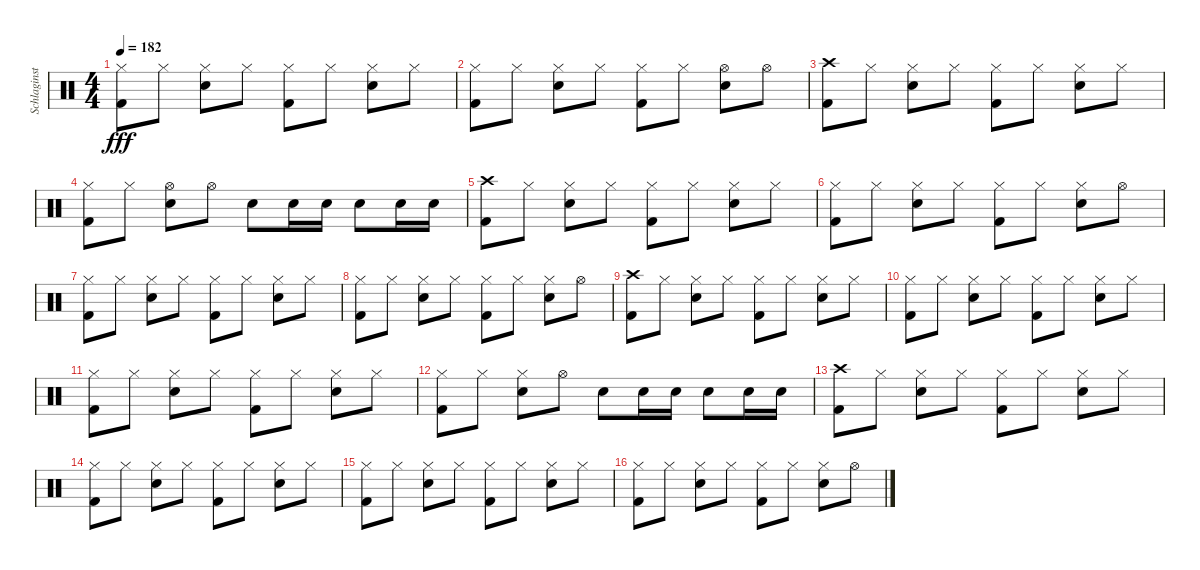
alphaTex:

\track ("Schlaginstrumente - Auswahl" "Schlaginst") {instrument percussion}
\staff {score}
\articulation defaults
\ts (4 4)
\tempo 182
\clef neutral
\ks c
("Kick (hit) 2" "Hi-Hat (closed)").8{dy fff} "Hi-Hat (closed)".8 ("Snare (hit) 2" "Hi-Hat (closed)").8 "Hi-Hat (closed)".8 ("Kick (hit) 2" "Hi-Hat (closed)").8 "Hi-Hat (closed)".8 ("Snare (hit) 2" "Hi-Hat (closed)").8 "Hi-Hat (closed)".8 |
("Kick (hit) 2" "Hi-Hat (closed)").8 "Hi-Hat (closed)".8 ("Snare (hit) 2" "Hi-Hat (closed)").8 "Hi-Hat (closed)".8 ("Kick (hit) 2" "Hi-Hat (closed)").8 "Hi-Hat (closed)".8 ("Snare (hit) 2" "Hi-Hat (open)").8 "Hi-Hat (open)".8 |
("Kick (hit) 2" "Crash high (hit)").8 "Hi-Hat (closed)".8 ("Snare (hit) 2" "Hi-Hat (closed)").8 "Hi-Hat (closed)".8 ("Kick (hit) 2" "Hi-Hat (closed)").8 "Hi-Hat (closed)".8 ("Snare (hit) 2" "Hi-Hat (closed)").8 "Hi-Hat (closed)".8 |
("Kick (hit) 2" "Hi-Hat (closed)").8 "Hi-Hat (closed)".8 ("Snare (hit) 2" "Hi-Hat (open)").8 "Hi-Hat (open)".8 "Snare (hit) 2".8 "Snare (hit) 2".16 "Snare (hit) 2".16 "Snare (hit) 2".8 "Snare (hit) 2".16 "Snare (hit) 2".16 |
("Kick (hit) 2" "Crash high (hit)").8 "Hi-Hat (closed)".8 ("Snare (hit) 2" "Hi-Hat (closed)").8 "Hi-Hat (closed)".8 ("Kick (hit) 2" "Hi-Hat (closed)").8 "Hi-Hat (closed)".8 ("Snare (hit) 2" "Hi-Hat (closed)").8 "Hi-Hat (closed)".8 |
("Kick (hit) 2" "Hi-Hat (closed)").8 "Hi-Hat (closed)".8 ("Snare (hit) 2" "Hi-Hat (closed)").8 "Hi-Hat (closed)".8 ("Kick (hit) 2" "Hi-Hat (closed)").8 "Hi-Hat (closed)".8 ("Snare (hit) 2" "Hi-Hat (closed)").8 "Hi-Hat (open)".8 |
("Kick (hit) 2" "Hi-Hat (closed)").8 "Hi-Hat (closed)".8 ("Snare (hit) 2" "Hi-Hat (closed)").8 "Hi-Hat (closed)".8 ("Kick (hit) 2" "Hi-Hat (closed)").8 "Hi-Hat (closed)".8 ("Snare (hit) 2" "Hi-Hat (closed)").8 "Hi-Hat (closed)".8 |
("Kick (hit) 2" "Hi-Hat (closed)").8 "Hi-Hat (closed)".8 ("Snare (hit) 2" "Hi-Hat (closed)").8 "Hi-Hat (closed)".8 ("Kick (hit) 2" "Hi-Hat (closed)").8 "Hi-Hat (closed)".8 ("Snare (hit) 2" "Hi-Hat (closed)").8 "Hi-Hat (open)".8 |
("Kick (hit) 2" "Crash high (hit)").8 "Hi-Hat (closed)".8 ("Snare (hit) 2" "Hi-Hat (closed)").8 "Hi-Hat (closed)".8 ("Kick (hit) 2" "Hi-Hat (closed)").8 "Hi-Hat (closed)".8 ("Snare (hit) 2" "Hi-Hat (closed)").8 "Hi-Hat (closed)".8 |
("Kick (hit) 2" "Hi-Hat (closed)").8 "Hi-Hat (closed)".8 ("Snare (hit) 2" "Hi-Hat (closed)").8 "Hi-Hat (closed)".8 ("Kick (hit) 2" "Hi-Hat (closed)").8 "Hi-Hat (closed)".8 ("Snare (hit) 2" "Hi-Hat (closed)").8 "Hi-Hat (closed)".8 |
("Kick (hit) 2" "Hi-Hat (closed)").8 "Hi-Hat (closed)".8 ("Snare (hit) 2" "Hi-Hat (closed)").8 "Hi-Hat (closed)".8 ("Kick (hit) 2" "Hi-Hat (closed)").8 "Hi-Hat (closed)".8 ("Snare (hit) 2" "Hi-Hat (closed)").8 "Hi-Hat (closed)".8 |
("Kick (hit) 2" "Hi-Hat (closed)").8 "Hi-Hat (closed)".8 ("Snare (hit) 2" "Hi-Hat (closed)").8 "Hi-Hat (open)".8 "Snare (hit) 2".8 "Snare (hit) 2".16 "Snare (hit) 2".16 "Snare (hit) 2".8 "Snare (hit) 2".16 "Snare (hit) 2".16 |
("Kick (hit) 2" "Crash high (hit)").8 "Hi-Hat (closed)".8 ("Snare (hit) 2" "Hi-Hat (closed)").8 "Hi-Hat (closed)".8 ("Kick (hit) 2" "Hi-Hat (closed)").8 "Hi-Hat (closed)".8 ("Snare (hit) 2" "Hi-Hat (closed)").8 "Hi-Hat (closed)".8 |
("Kick (hit) 2" "Hi-Hat (closed)").8 "Hi-Hat (closed)".8 ("Snare (hit) 2" "Hi-Hat (closed)").8 "Hi-Hat (closed)".8 ("Kick (hit) 2" "Hi-Hat (closed)").8 "Hi-Hat (closed)".8 ("Snare (hit) 2" "Hi-Hat (closed)").8 "Hi-Hat (closed)".8 |
("Kick (hit) 2" "Hi-Hat (closed)").8 "Hi-Hat (closed)".8 ("Snare (hit) 2" "Hi-Hat (closed)").8 "Hi-Hat (closed)".8 ("Kick (hit) 2" "Hi-Hat (closed)").8 "Hi-Hat (closed)".8 ("Snare (hit) 2" "Hi-Hat (closed)").8 "Hi-Hat (closed)".8 |
("Kick (hit) 2" "Hi-Hat (closed)").8 "Hi-Hat (closed)".8 ("Snare (hit) 2" "Hi-Hat (closed)").8 "Hi-Hat (closed)".8 ("Kick (hit) 2" "Hi-Hat (closed)").8 "Hi-Hat (closed)".8 ("Snare (hit) 2" "Hi-Hat (closed)").8 "Hi-Hat (open)".8
